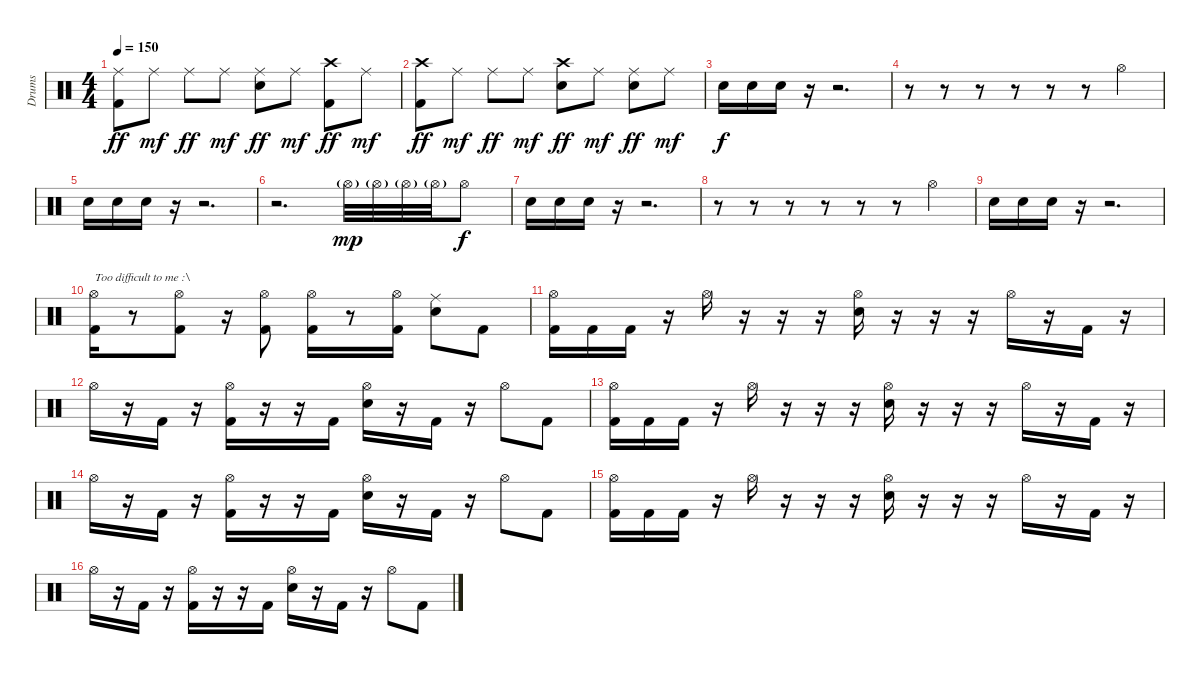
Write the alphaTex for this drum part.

\track ("Drums" "Drums") {instrument percussion}
\staff {score}
\articulation defaults
\ts (4 4)
\tempo 150
\clef neutral
\ks c
("Ride (middle)" "Kick (hit) 2").8{dy ff} "Ride (middle)".8{dy mf} "Ride (middle)".8{dy ff} "Ride (middle)".8{dy mf} ("Ride (middle)" "Electric Snare (hit)").8{dy ff} "Ride (middle)".8{dy mf} ("Crash high (hit)" "Kick (hit) 2").8{dy ff} "Ride (middle)".8{dy mf} |
("Crash high (hit)" "Kick (hit) 2").8{dy ff} "Ride (middle)".8{dy mf} "Ride (middle)".8{dy ff} "Ride (middle)".8{dy mf} ("Crash high (hit)" "Electric Snare (hit)").8{dy ff} "Ride (middle)".8{dy mf} ("Ride (middle)" "Electric Snare (hit)").8{dy ff} "Ride (middle)".8{dy mf} |
"Electric Snare (hit)".16{dy f} "Electric Snare (hit)".16 "Electric Snare (hit)".16 r.16 r.2{d} |
r.8 r.8 r.8 r.8 r.8 r.8 "Hi-Hat (open)".4 |
"Electric Snare (hit)".16 "Electric Snare (hit)".16 "Electric Snare (hit)".16 r.16 r.2{d} |
r.2{d} "Hi-Hat (open)"{g}.32{dy mp} "Hi-Hat (open)"{g}.32 "Hi-Hat (open)"{g}.32 "Hi-Hat (open)"{g}.32 "Hi-Hat (open)".8{dy f} |
"Electric Snare (hit)".16 "Electric Snare (hit)".16 "Electric Snare (hit)".16 r.16 r.2{d} |
r.8 r.8 r.8 r.8 r.8 r.8 "Hi-Hat (open)".4 |
"Electric Snare (hit)".16 "Electric Snare (hit)".16 "Electric Snare (hit)".16 r.16 r.2{d} |
("Hi-Hat (open)" "Kick (hit) 2").16{txt "Too difficult to me :\\"} r.8 ("Hi-Hat (open)" "Kick (hit) 2").8 r.16 ("Hi-Hat (open)" "Kick (hit) 2").8 ("Hi-Hat (open)" "Kick (hit) 2").16 r.8 ("Hi-Hat (open)" "Kick (hit) 2").16 ("Ride (middle)" "Electric Snare (hit)").8 "Kick (hit) 2".8 |
("Hi-Hat (open)" "Kick (hit) 2").16 "Kick (hit) 2".16 "Kick (hit) 2".16 r.16 "Hi-Hat (open)".16 r.16 r.16 r.16 ("Hi-Hat (open)" "Electric Snare (hit)").16 r.16 r.16 r.16 "Hi-Hat (open)".16 r.16 "Kick (hit) 2".16 r.16 |
"Hi-Hat (open)".16 r.16 "Kick (hit) 2".16 r.16 ("Hi-Hat (open)" "Kick (hit) 2").16 r.16 r.16 "Kick (hit) 2".16 ("Hi-Hat (open)" "Electric Snare (hit)").16 r.16 "Kick (hit) 2".16 r.16 "Hi-Hat (open)".8 "Kick (hit) 2".8 |
("Hi-Hat (open)" "Kick (hit) 2").16 "Kick (hit) 2".16 "Kick (hit) 2".16 r.16 "Hi-Hat (open)".16 r.16 r.16 r.16 ("Hi-Hat (open)" "Electric Snare (hit)").16 r.16 r.16 r.16 "Hi-Hat (open)".16 r.16 "Kick (hit) 2".16 r.16 |
"Hi-Hat (open)".16 r.16 "Kick (hit) 2".16 r.16 ("Hi-Hat (open)" "Kick (hit) 2").16 r.16 r.16 "Kick (hit) 2".16 ("Hi-Hat (open)" "Electric Snare (hit)").16 r.16 "Kick (hit) 2".16 r.16 "Hi-Hat (open)".8 "Kick (hit) 2".8 |
("Hi-Hat (open)" "Kick (hit) 2").16 "Kick (hit) 2".16 "Kick (hit) 2".16 r.16 "Hi-Hat (open)".16 r.16 r.16 r.16 ("Hi-Hat (open)" "Electric Snare (hit)").16 r.16 r.16 r.16 "Hi-Hat (open)".16 r.16 "Kick (hit) 2".16 r.16 |
"Hi-Hat (open)".16 r.16 "Kick (hit) 2".16 r.16 ("Hi-Hat (open)" "Kick (hit) 2").16 r.16 r.16 "Kick (hit) 2".16 ("Hi-Hat (open)" "Electric Snare (hit)").16 r.16 "Kick (hit) 2".16 r.16 "Hi-Hat (open)".8 "Kick (hit) 2".8
